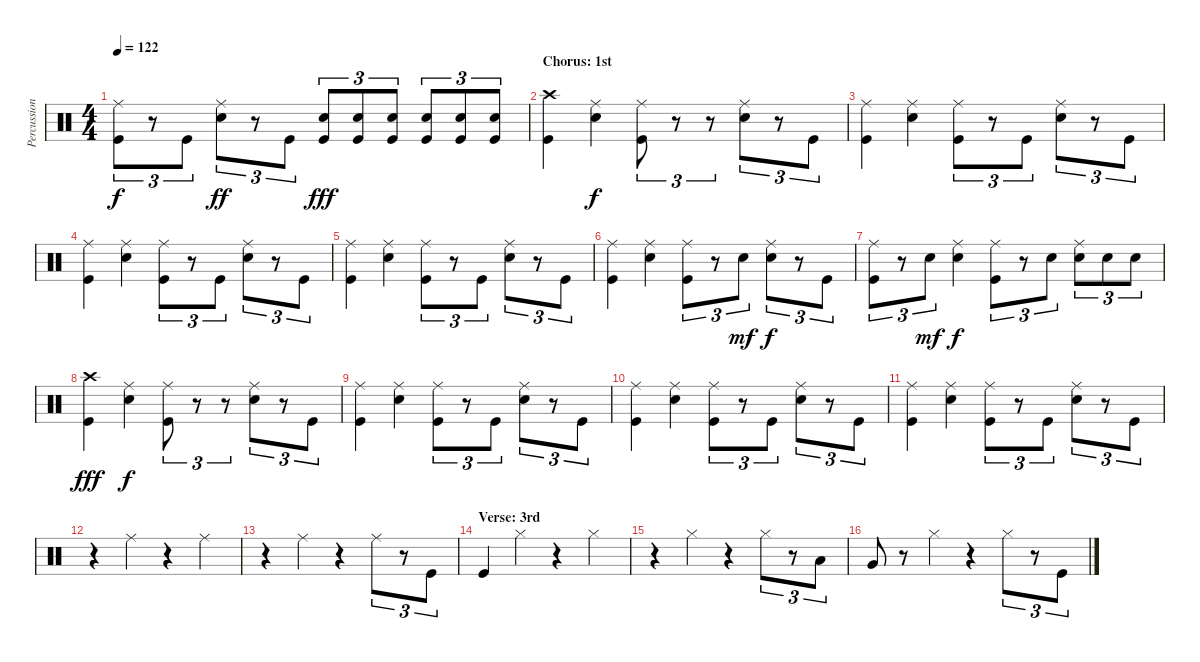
\track ("Percussion" "Percussion") {instrument percussion}
\staff {score}
\articulation defaults
\ts (4 4)
\tempo 122
\clef neutral
\ks c
("Ride (middle)" "Kick (hit)").8{tu (3 2) dy f volume 14} r.8{tu (3 2)} "Kick (hit)".8{tu (3 2)} ("Ride (middle)" "Electric Snare (hit)").8{tu (3 2) dy ff} r.8{tu (3 2)} "Kick (hit)".8{tu (3 2)} ("Electric Snare (hit)" "Kick (hit)").8{tu (3 2) dy fff} ("Electric Snare (hit)" "Kick (hit)").8{tu (3 2)} ("Electric Snare (hit)" "Kick (hit)").8{tu (3 2)} ("Electric Snare (hit)" "Kick (hit)").8{tu (3 2)} ("Electric Snare (hit)" "Kick (hit)").8{tu (3 2)} ("Electric Snare (hit)" "Kick (hit)").8{tu (3 2)} |
\section ("" "Chorus: 1st")
("Crash high (hit)" "Kick (hit)").4 ("Ride (middle)" "Electric Snare (hit)").4{dy f} ("Ride (middle)" "Kick (hit)").8{tu (3 2)} r.8{tu (3 2)} r.8{tu (3 2)} ("Ride (middle)" "Electric Snare (hit)").8{tu (3 2)} r.8{tu (3 2)} "Kick (hit)".8{tu (3 2)} |
("Ride (middle)" "Kick (hit)").4 ("Ride (middle)" "Electric Snare (hit)").4 ("Ride (middle)" "Kick (hit)").8{tu (3 2)} r.8{tu (3 2)} "Kick (hit)".8{tu (3 2)} ("Ride (middle)" "Electric Snare (hit)").8{tu (3 2)} r.8{tu (3 2)} "Kick (hit)".8{tu (3 2)} |
("Ride (middle)" "Kick (hit)").4 ("Ride (middle)" "Electric Snare (hit)").4 ("Ride (middle)" "Kick (hit)").8{tu (3 2)} r.8{tu (3 2)} "Kick (hit)".8{tu (3 2)} ("Ride (middle)" "Electric Snare (hit)").8{tu (3 2)} r.8{tu (3 2)} "Kick (hit)".8{tu (3 2)} |
("Ride (middle)" "Kick (hit)").4 ("Ride (middle)" "Electric Snare (hit)").4 ("Ride (middle)" "Kick (hit)").8{tu (3 2)} r.8{tu (3 2)} "Kick (hit)".8{tu (3 2)} ("Ride (middle)" "Electric Snare (hit)").8{tu (3 2)} r.8{tu (3 2)} "Kick (hit)".8{tu (3 2)} |
("Ride (middle)" "Kick (hit)").4 ("Ride (middle)" "Electric Snare (hit)").4 ("Ride (middle)" "Kick (hit)").8{tu (3 2)} r.8{tu (3 2)} "Electric Snare (hit)".8{tu (3 2) dy mf} ("Ride (middle)" "Electric Snare (hit)").8{tu (3 2) dy f} r.8{tu (3 2)} "Kick (hit)".8{tu (3 2)} |
("Ride (middle)" "Kick (hit)").8{tu (3 2)} r.8{tu (3 2)} "Electric Snare (hit)".8{tu (3 2) dy mf} ("Ride (middle)" "Electric Snare (hit)").4{dy f} ("Ride (middle)" "Kick (hit)").8{tu (3 2)} r.8{tu (3 2)} "Electric Snare (hit)".8{tu (3 2)} ("Ride (middle)" "Electric Snare (hit)").8{tu (3 2)} "Electric Snare (hit)".8{tu (3 2)} "Electric Snare (hit)".8{tu (3 2)} |
("Crash high (hit)" "Kick (hit)").4{dy fff} ("Ride (middle)" "Electric Snare (hit)").4{dy f} ("Ride (middle)" "Kick (hit)").8{tu (3 2)} r.8{tu (3 2)} r.8{tu (3 2)} ("Ride (middle)" "Electric Snare (hit)").8{tu (3 2)} r.8{tu (3 2)} "Kick (hit)".8{tu (3 2)} |
("Ride (middle)" "Kick (hit)").4 ("Ride (middle)" "Electric Snare (hit)").4 ("Ride (middle)" "Kick (hit)").8{tu (3 2)} r.8{tu (3 2)} "Kick (hit)".8{tu (3 2)} ("Ride (middle)" "Electric Snare (hit)").8{tu (3 2)} r.8{tu (3 2)} "Kick (hit)".8{tu (3 2)} |
("Ride (middle)" "Kick (hit)").4 ("Ride (middle)" "Electric Snare (hit)").4 ("Ride (middle)" "Kick (hit)").8{tu (3 2)} r.8{tu (3 2)} "Kick (hit)".8{tu (3 2)} ("Ride (middle)" "Electric Snare (hit)").8{tu (3 2)} r.8{tu (3 2)} "Kick (hit)".8{tu (3 2)} |
("Ride (middle)" "Kick (hit)").4 ("Ride (middle)" "Electric Snare (hit)").4 ("Ride (middle)" "Kick (hit)").8{tu (3 2)} r.8{tu (3 2)} "Kick (hit)".8{tu (3 2)} ("Ride (middle)" "Electric Snare (hit)").8{tu (3 2)} r.8{tu (3 2)} "Kick (hit)".8{tu (3 2)} |
r.4 "Ride (middle)".4 r.4 "Ride (middle)".4 |
r.4 "Ride (middle)".4 r.4 "Ride (middle)".8{tu (3 2)} r.8{tu (3 2)} "Kick (hit)".8{tu (3 2)} |
\section ("" "Verse: 3rd")
"Kick (hit)".4{volume 10} "Hi-Hat (closed)".4 r.4 "Hi-Hat (closed)".4 |
r.4 "Hi-Hat (closed)".4 r.4 "Hi-Hat (closed)".8{tu (3 2)} r.8{tu (3 2)} "Low Tom (hit)".8{tu (3 2)} |
"Very Low Tom (hit)".8 r.8 "Hi-Hat (closed)".4 r.4 "Hi-Hat (closed)".8{tu (3 2)} r.8{tu (3 2)} "Kick (hit)".8{tu (3 2)}
